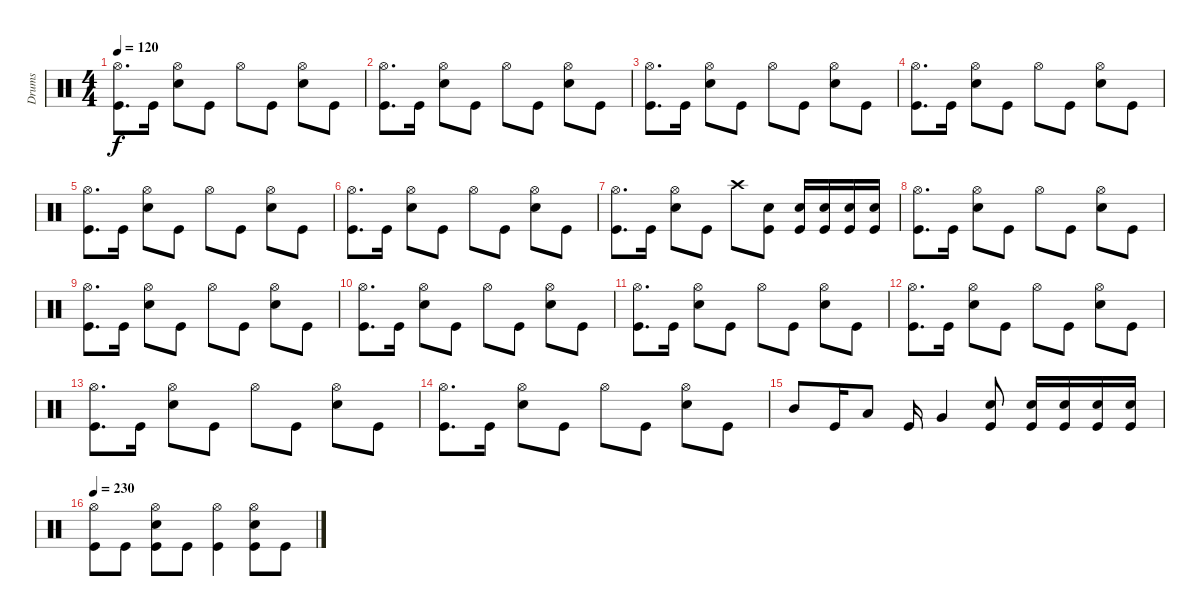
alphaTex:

\track ("Drums" "Drums") {instrument percussion}
\staff {score}
\articulation defaults
\ts (4 4)
\tempo 120
\clef neutral
\ks c
("Hi-Hat (open)" "Kick (hit)").8{d dy f} "Kick (hit)".16 ("Hi-Hat (open)" "Snare (hit) 2").8 "Kick (hit)".8 "Hi-Hat (open)".8 "Kick (hit)".8 ("Hi-Hat (open)" "Snare (hit) 2").8 "Kick (hit)".8 |
("Hi-Hat (open)" "Kick (hit)").8{d} "Kick (hit)".16 ("Hi-Hat (open)" "Snare (hit) 2").8 "Kick (hit)".8 "Hi-Hat (open)".8 "Kick (hit)".8 ("Hi-Hat (open)" "Snare (hit) 2").8 "Kick (hit)".8 |
("Hi-Hat (open)" "Kick (hit)").8{d} "Kick (hit)".16 ("Hi-Hat (open)" "Snare (hit) 2").8 "Kick (hit)".8 "Hi-Hat (open)".8 "Kick (hit)".8 ("Hi-Hat (open)" "Snare (hit) 2").8 "Kick (hit)".8 |
("Hi-Hat (open)" "Kick (hit)").8{d} "Kick (hit)".16 ("Hi-Hat (open)" "Snare (hit) 2").8 "Kick (hit)".8 "Hi-Hat (open)".8 "Kick (hit)".8 ("Hi-Hat (open)" "Snare (hit) 2").8 "Kick (hit)".8 |
("Hi-Hat (open)" "Kick (hit)").8{d} "Kick (hit)".16 ("Hi-Hat (open)" "Snare (hit) 2").8 "Kick (hit)".8 "Hi-Hat (open)".8 "Kick (hit)".8 ("Hi-Hat (open)" "Snare (hit) 2").8 "Kick (hit)".8 |
("Hi-Hat (open)" "Kick (hit)").8{d} "Kick (hit)".16 ("Hi-Hat (open)" "Snare (hit) 2").8 "Kick (hit)".8 "Hi-Hat (open)".8 "Kick (hit)".8 ("Hi-Hat (open)" "Snare (hit) 2").8 "Kick (hit)".8 |
("Hi-Hat (open)" "Kick (hit)").8{d} "Kick (hit)".16 ("Hi-Hat (open)" "Snare (hit) 2").8 "Kick (hit)".8 "Crash high (hit)".8 ("Snare (hit) 2" "Kick (hit)").8 ("Snare (hit) 2" "Kick (hit)").16 ("Snare (hit) 2" "Kick (hit)").16 ("Snare (hit) 2" "Kick (hit)").16 ("Snare (hit) 2" "Kick (hit)").16 |
("Hi-Hat (open)" "Kick (hit)").8{d} "Kick (hit)".16 ("Hi-Hat (open)" "Snare (hit) 2").8 "Kick (hit)".8 "Hi-Hat (open)".8 "Kick (hit)".8 ("Hi-Hat (open)" "Snare (hit) 2").8 "Kick (hit)".8 |
("Hi-Hat (open)" "Kick (hit)").8{d} "Kick (hit)".16 ("Hi-Hat (open)" "Snare (hit) 2").8 "Kick (hit)".8 "Hi-Hat (open)".8 "Kick (hit)".8 ("Hi-Hat (open)" "Snare (hit) 2").8 "Kick (hit)".8 |
("Hi-Hat (open)" "Kick (hit)").8{d} "Kick (hit)".16 ("Hi-Hat (open)" "Snare (hit) 2").8 "Kick (hit)".8 "Hi-Hat (open)".8 "Kick (hit)".8 ("Hi-Hat (open)" "Snare (hit) 2").8 "Kick (hit)".8 |
("Hi-Hat (open)" "Kick (hit)").8{d} "Kick (hit)".16 ("Hi-Hat (open)" "Snare (hit) 2").8 "Kick (hit)".8 "Hi-Hat (open)".8 "Kick (hit)".8 ("Hi-Hat (open)" "Snare (hit) 2").8 "Kick (hit)".8 |
("Hi-Hat (open)" "Kick (hit)").8{d} "Kick (hit)".16 ("Hi-Hat (open)" "Snare (hit) 2").8 "Kick (hit)".8 "Hi-Hat (open)".8 "Kick (hit)".8 ("Hi-Hat (open)" "Snare (hit) 2").8 "Kick (hit)".8 |
("Hi-Hat (open)" "Kick (hit)").8{d} "Kick (hit)".16 ("Hi-Hat (open)" "Snare (hit) 2").8 "Kick (hit)".8 "Hi-Hat (open)".8 "Kick (hit)".8 ("Hi-Hat (open)" "Snare (hit) 2").8 "Kick (hit)".8 |
("Hi-Hat (open)" "Kick (hit)").8{d} "Kick (hit)".16 ("Hi-Hat (open)" "Snare (hit) 2").8 "Kick (hit)".8 "Hi-Hat (open)".8 "Kick (hit)".8 ("Hi-Hat (open)" "Snare (hit) 2").8 "Kick (hit)".8 |
"Mid Tom (hit)".8 "Kick (hit)".16 "Low Tom (hit)".8 "Kick (hit)".16 "Very Low Tom (hit)".4 ("Snare (hit) 2" "Kick (hit)").8 ("Snare (hit) 2" "Kick (hit)").16 ("Snare (hit) 2" "Kick (hit)").16 ("Snare (hit) 2" "Kick (hit)").16 ("Snare (hit) 2" "Kick (hit)").16 |
\tempo 230
("Hi-Hat (open)" "Kick (hit)").8 "Kick (hit)".8 ("Hi-Hat (open)" "Snare (hit) 2" "Kick (hit)").8 "Kick (hit)".8 ("Hi-Hat (open)" "Kick (hit)").4 ("Hi-Hat (open)" "Snare (hit) 2" "Kick (hit)").8 "Kick (hit)".8
